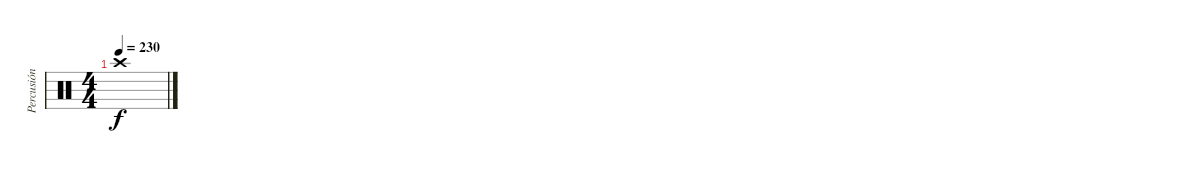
\track ("Percusión" "Percusión") {instrument percussion}
\staff {score}
\articulation defaults
\ts (4 4)
\tempo 230
\clef neutral
\ks c "Crash high (hit)".1{dy f}
